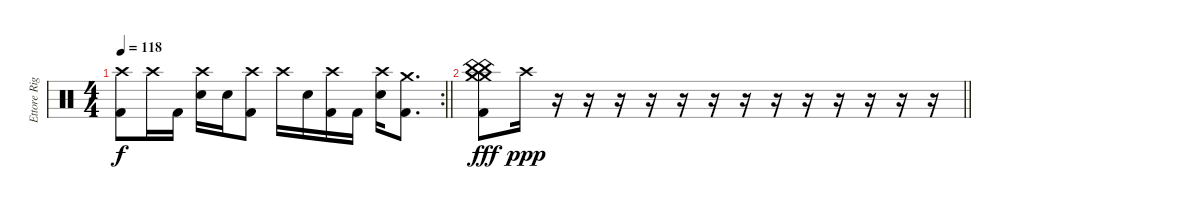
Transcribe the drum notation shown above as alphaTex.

\track ("Ettore Rigotti" "Ettore Rig") {instrument percussion}
\staff {score}
\articulation defaults
\rc 2
\ts (4 4)
\tempo 118
\clef neutral
\barLineRight lightlight
\ks c
("Crash high (hit)" "Kick (hit) 2").8{dy f} "Crash high (hit)".16 "Kick (hit) 2".16 ("Crash high (hit)" "Electric Snare (hit)").16 "Electric Snare (hit)".16 ("Crash high (hit)" "Kick (hit) 2").8 "Crash high (hit)".16 "Electric Snare (hit)".16 ("Crash high (hit)" "Kick (hit) 2").16 "Kick (hit) 2".16 ("Crash high (hit)" "Electric Snare (hit)").16 ("Crash medium (hit)" "Kick (hit) 2").8{d} |
\barLineRight lightlight
("China (hit)" "China (hit)" "Crash medium (hit)" "Crash medium (hit)" "Kick (hit) 2").8{dy fff} "Crash high (hit)".16{dy ppp} r.16 r.16 r.16 r.16 r.16 r.16 r.16 r.16 r.16 r.16 r.16 r.16 r.16
